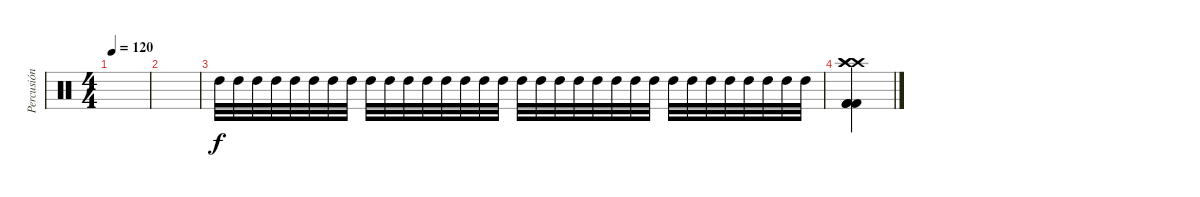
\track ("Percusión" "Percusión") {instrument percussion}
\staff {score}
\articulation defaults
\ts (4 4)
\tempo 120
\clef neutral
\ks c
|
|
"High Tom (hit)".32 "High Tom (hit)".32 "High Tom (hit)".32 "High Tom (hit)".32 "High Tom (hit)".32 "High Tom (hit)".32 "High Tom (hit)".32 "High Tom (hit)".32 "High Tom (hit)".32 "High Tom (hit)".32 "High Tom (hit)".32 "High Tom (hit)".32 "High Tom (hit)".32 "High Tom (hit)".32 "High Tom (hit)".32 "High Tom (hit)".32 "High Tom (hit)".32 "High Tom (hit)".32 "High Tom (hit)".32 "High Tom (hit)".32 "High Tom (hit)".32 "High Tom (hit)".32 "High Tom (hit)".32 "High Tom (hit)".32 "High Tom (hit)".32 "High Tom (hit)".32 "High Tom (hit)".32 "High Tom (hit)".32 "High Tom (hit)".32 "High Tom (hit)".32 "High Tom (hit)".32 "High Tom (hit)".32 |
("Crash high (hit)" "Crash high (hit)" "Crash high (hit)" "Kick (hit) 2" "Kick (hit) 2" "Kick (hit) 2").4
